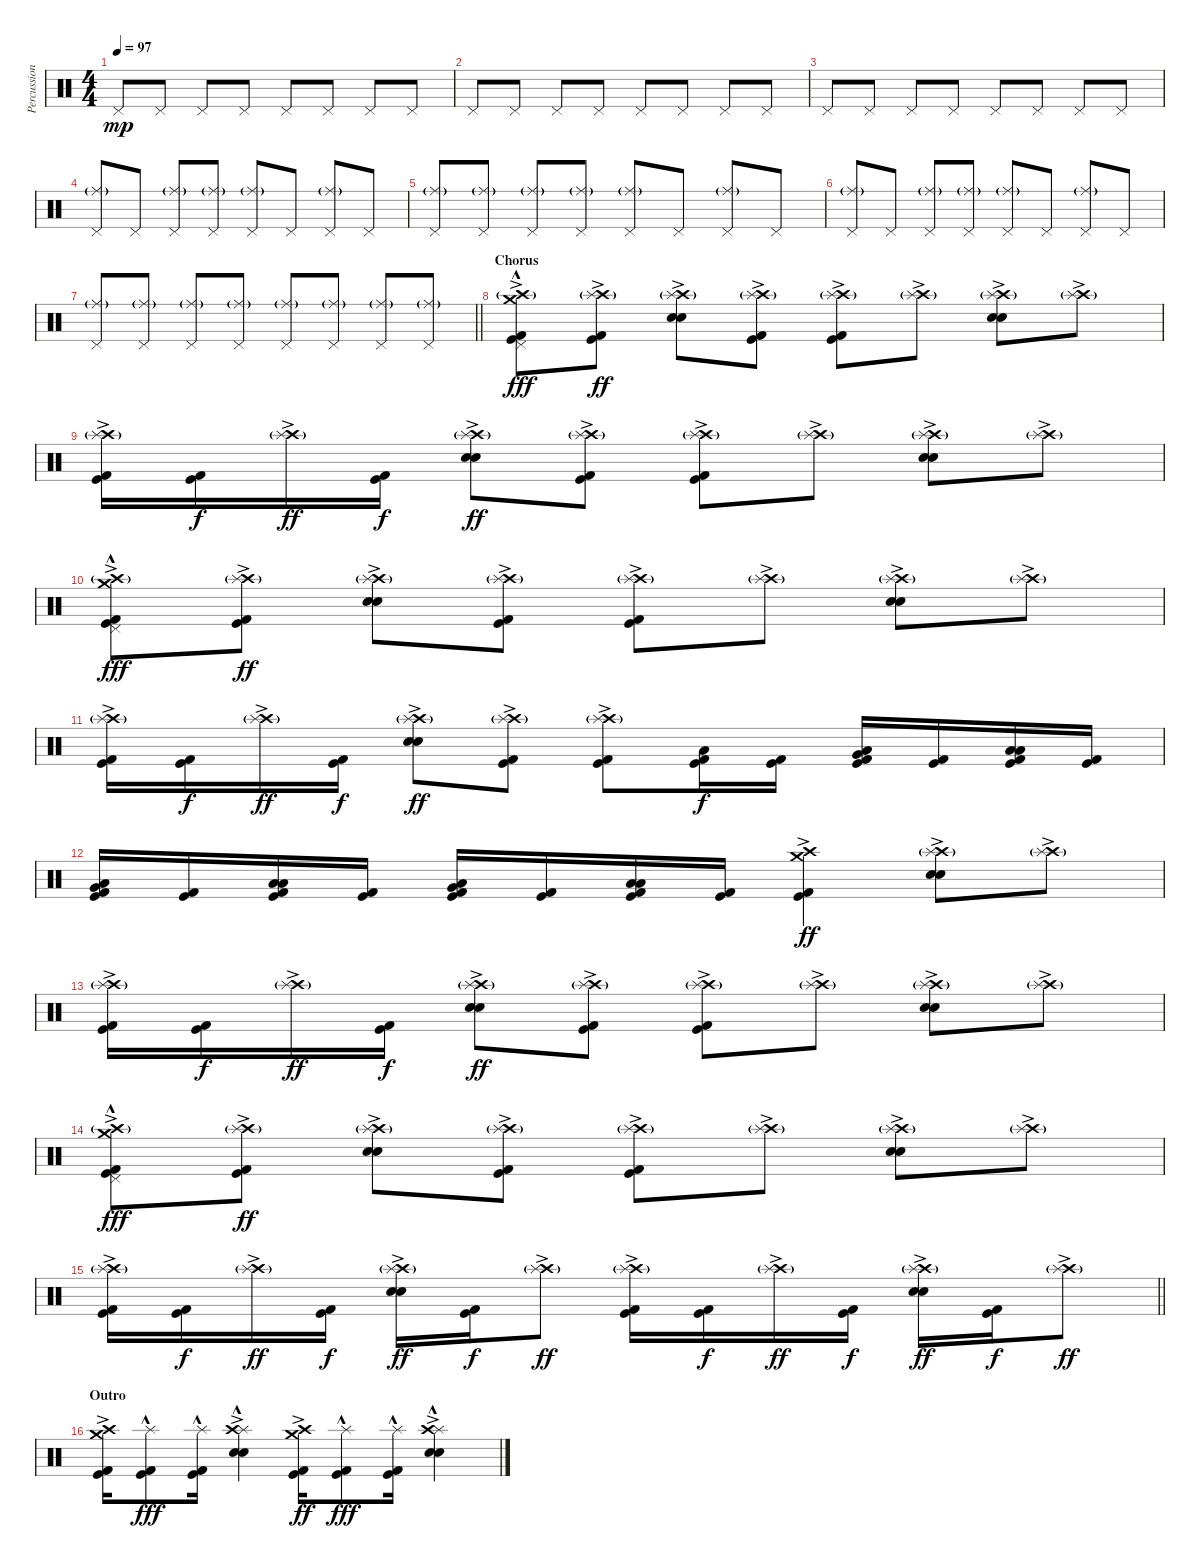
\track ("Percussion" "Percussion") {instrument percussion}
\staff {score}
\articulation defaults
\ts (4 4)
\tempo 97
\clef neutral
\ks c "Pedal Hi-Hat (hit)".8{dy mp} "Pedal Hi-Hat (hit)".8 "Pedal Hi-Hat (hit)".8 "Pedal Hi-Hat (hit)".8 "Pedal Hi-Hat (hit)".8 "Pedal Hi-Hat (hit)".8 "Pedal Hi-Hat (hit)".8 "Pedal Hi-Hat (hit)".8
|
"Pedal Hi-Hat (hit)".8 "Pedal Hi-Hat (hit)".8 "Pedal Hi-Hat (hit)".8 "Pedal Hi-Hat (hit)".8 "Pedal Hi-Hat (hit)".8 "Pedal Hi-Hat (hit)".8 "Pedal Hi-Hat (hit)".8 "Pedal Hi-Hat (hit)".8 |
"Pedal Hi-Hat (hit)".8 "Pedal Hi-Hat (hit)".8 "Pedal Hi-Hat (hit)".8 "Pedal Hi-Hat (hit)".8 "Pedal Hi-Hat (hit)".8 "Pedal Hi-Hat (hit)".8 "Pedal Hi-Hat (hit)".8 "Pedal Hi-Hat (hit)".8 |
("Ride (middle)"{g} "Pedal Hi-Hat (hit)").8 "Pedal Hi-Hat (hit)".8 ("Ride (middle)"{g} "Pedal Hi-Hat (hit)").8 ("Ride (middle)"{g} "Pedal Hi-Hat (hit)").8 ("Ride (middle)"{g} "Pedal Hi-Hat (hit)").8 "Pedal Hi-Hat (hit)".8 ("Ride (middle)"{g} "Pedal Hi-Hat (hit)").8 "Pedal Hi-Hat (hit)".8 |
("Ride (middle)"{g} "Pedal Hi-Hat (hit)").8 ("Ride (middle)"{g} "Pedal Hi-Hat (hit)").8 ("Ride (middle)"{g} "Pedal Hi-Hat (hit)").8 ("Ride (middle)"{g} "Pedal Hi-Hat (hit)").8 ("Ride (middle)"{g} "Pedal Hi-Hat (hit)").8 "Pedal Hi-Hat (hit)".8 ("Ride (middle)"{g} "Pedal Hi-Hat (hit)").8 "Pedal Hi-Hat (hit)".8 |
("Ride (middle)"{g} "Pedal Hi-Hat (hit)").8 "Pedal Hi-Hat (hit)".8 ("Ride (middle)"{g} "Pedal Hi-Hat (hit)").8 ("Ride (middle)"{g} "Pedal Hi-Hat (hit)").8 ("Ride (middle)"{g} "Pedal Hi-Hat (hit)").8 "Pedal Hi-Hat (hit)".8 ("Ride (middle)"{g} "Pedal Hi-Hat (hit)").8 "Pedal Hi-Hat (hit)".8 |
\barLineRight lightlight
("Ride (middle)"{g} "Pedal Hi-Hat (hit)").8 ("Ride (middle)"{g} "Pedal Hi-Hat (hit)").8 ("Ride (middle)"{g} "Pedal Hi-Hat (hit)").8 ("Ride (middle)"{g} "Pedal Hi-Hat (hit)").8 ("Ride (middle)"{g} "Pedal Hi-Hat (hit)").8 ("Ride (middle)"{g} "Pedal Hi-Hat (hit)").8 ("Ride (middle)"{g} "Pedal Hi-Hat (hit)").8 ("Ride (middle)"{g} "Pedal Hi-Hat (hit)").8 |
\section ("" "Chorus")
("Kick (hit) 2"{ac} "Kick (hit)" "Pedal Hi-Hat (hit)" "Crash high (hit)"{g} "Crash medium (hit)"{hac}).8{dy fff} ("Kick (hit) 2" "Kick (hit)" "Crash high (hit)"{g} "Splash (hit)"{ac}).8{dy ff} ("Electric Snare (hit)" "Snare (hit) 2" "Crash high (hit)"{g} "Splash (hit)"{ac}).8 ("Kick (hit) 2" "Kick (hit)" "Crash high (hit)"{g} "Splash (hit)"{ac}).8 ("Kick (hit) 2" "Kick (hit)" "Crash high (hit)"{g} "Splash (hit)"{ac}).8 ("Crash high (hit)"{g} "Splash (hit)"{ac}).8 ("Electric Snare (hit)" "Snare (hit) 2" "Crash high (hit)"{g} "Splash (hit)"{ac}).8 ("Crash high (hit)"{g} "Splash (hit)"{ac}).8 |
("Kick (hit) 2" "Kick (hit)" "Crash high (hit)"{g} "Splash (hit)"{ac}).16 ("Kick (hit) 2" "Kick (hit)").16{dy f} ("Crash high (hit)"{g} "Splash (hit)"{ac}).16{dy ff} ("Kick (hit) 2" "Kick (hit)").16{dy f} ("Electric Snare (hit)" "Snare (hit) 2" "Crash high (hit)"{g} "Splash (hit)"{ac}).8{dy ff} ("Kick (hit) 2" "Kick (hit)" "Crash high (hit)"{g} "Splash (hit)"{ac}).8 ("Kick (hit) 2" "Kick (hit)" "Crash high (hit)"{g} "Splash (hit)"{ac}).8 ("Crash high (hit)"{g} "Splash (hit)"{ac}).8 ("Electric Snare (hit)" "Snare (hit) 2" "Crash high (hit)"{g} "Splash (hit)"{ac}).8 ("Crash high (hit)"{g} "Splash (hit)"{ac}).8 |
("Kick (hit) 2"{ac} "Kick (hit)" "Pedal Hi-Hat (hit)" "Crash high (hit)"{g} "Crash medium (hit)"{hac}).8{dy fff} ("Kick (hit) 2" "Kick (hit)" "Crash high (hit)"{g} "Splash (hit)"{ac}).8{dy ff} ("Electric Snare (hit)" "Snare (hit) 2" "Crash high (hit)"{g} "Splash (hit)"{ac}).8 ("Kick (hit) 2" "Kick (hit)" "Crash high (hit)"{g} "Splash (hit)"{ac}).8 ("Kick (hit) 2" "Kick (hit)" "Crash high (hit)"{g} "Splash (hit)"{ac}).8 ("Crash high (hit)"{g} "Splash (hit)"{ac}).8 ("Electric Snare (hit)" "Snare (hit) 2" "Crash high (hit)"{g} "Splash (hit)"{ac}).8 ("Crash high (hit)"{g} "Splash (hit)"{ac}).8 |
("Kick (hit) 2" "Kick (hit)" "Crash high (hit)"{g} "Splash (hit)"{ac}).16 ("Kick (hit) 2" "Kick (hit)").16{dy f} ("Crash high (hit)"{g} "Splash (hit)"{ac}).16{dy ff} ("Kick (hit) 2" "Kick (hit)").16{dy f} ("Electric Snare (hit)" "Snare (hit) 2" "Crash high (hit)"{g} "Splash (hit)"{ac}).8{dy ff} ("Kick (hit) 2" "Kick (hit)" "Crash high (hit)"{g} "Splash (hit)"{ac}).8 ("Kick (hit) 2" "Kick (hit)" "Crash high (hit)"{g} "Splash (hit)"{ac}).8 ("Kick (hit) 2" "Kick (hit)" "Low Floor Tom (hit)").16{dy f} ("Kick (hit) 2" "Kick (hit)").16 ("Kick (hit) 2" "Kick (hit)" "Low Tom (hit)" "Very Low Tom (hit)").16 ("Kick (hit) 2" "Kick (hit)").16 ("Kick (hit) 2" "Kick (hit)" "Low Tom (hit)" "Low Floor Tom (hit)").16 ("Kick (hit) 2" "Kick (hit)").16 |
("Kick (hit) 2" "Kick (hit)" "Low Tom (hit)" "Very Low Tom (hit)").16 ("Kick (hit) 2" "Kick (hit)").16 ("Kick (hit) 2" "Kick (hit)" "Low Tom (hit)" "Low Floor Tom (hit)").16 ("Kick (hit) 2" "Kick (hit)").16 ("Kick (hit) 2" "Kick (hit)" "Low Tom (hit)" "Very Low Tom (hit)").16 ("Kick (hit) 2" "Kick (hit)").16 ("Kick (hit) 2" "Kick (hit)" "Low Tom (hit)" "Low Floor Tom (hit)").16 ("Kick (hit)" "Kick (hit) 2").16 ("Kick (hit) 2" "Kick (hit)" "Crash high (hit)" "Crash medium (hit)"{ac}).4{dy ff} ("Electric Snare (hit)" "Snare (hit) 2" "Crash high (hit)"{g} "Splash (hit)"{ac}).8 ("Crash high (hit)"{g} "Splash (hit)"{ac}).8 |
("Kick (hit) 2" "Kick (hit)" "Crash high (hit)"{g} "Splash (hit)"{ac}).16 ("Kick (hit) 2" "Kick (hit)").16{dy f} ("Crash high (hit)"{g} "Splash (hit)"{ac}).16{dy ff} ("Kick (hit) 2" "Kick (hit)").16{dy f} ("Electric Snare (hit)" "Snare (hit) 2" "Crash high (hit)"{g} "Splash (hit)"{ac}).8{dy ff} ("Kick (hit) 2" "Kick (hit)" "Crash high (hit)"{g} "Splash (hit)"{ac}).8 ("Kick (hit) 2" "Kick (hit)" "Crash high (hit)"{g} "Splash (hit)"{ac}).8 ("Crash high (hit)"{g} "Splash (hit)"{ac}).8 ("Electric Snare (hit)" "Snare (hit) 2" "Crash high (hit)"{g} "Splash (hit)"{ac}).8 ("Crash high (hit)"{g} "Splash (hit)"{ac}).8 |
("Kick (hit) 2"{ac} "Kick (hit)" "Pedal Hi-Hat (hit)" "Crash high (hit)"{g} "Crash medium (hit)"{hac}).8{dy fff} ("Kick (hit) 2" "Kick (hit)" "Crash high (hit)"{g} "Splash (hit)"{ac}).8{dy ff} ("Electric Snare (hit)" "Snare (hit) 2" "Crash high (hit)"{g} "Splash (hit)"{ac}).8 ("Kick (hit) 2" "Kick (hit)" "Crash high (hit)"{g} "Splash (hit)"{ac}).8 ("Kick (hit) 2" "Kick (hit)" "Crash high (hit)"{g} "Splash (hit)"{ac}).8 ("Crash high (hit)"{g} "Splash (hit)"{ac}).8 ("Electric Snare (hit)" "Snare (hit) 2" "Crash high (hit)"{g} "Splash (hit)"{ac}).8 ("Crash high (hit)"{g} "Splash (hit)"{ac}).8 |
\barLineRight lightlight
("Kick (hit) 2" "Kick (hit)" "Crash high (hit)"{g} "Splash (hit)"{ac}).16 ("Kick (hit) 2" "Kick (hit)").16{dy f} ("Crash high (hit)"{g} "Splash (hit)"{ac}).16{dy ff} ("Kick (hit) 2" "Kick (hit)").16{dy f} ("Electric Snare (hit)" "Snare (hit) 2" "Crash high (hit)"{g} "Splash (hit)"{ac}).16{dy ff} ("Kick (hit) 2" "Kick (hit)").16{dy f} ("Crash high (hit)"{g} "Splash (hit)"{ac}).8{dy ff} ("Kick (hit) 2" "Kick (hit)" "Crash high (hit)"{g} "Splash (hit)"{ac}).16 ("Kick (hit) 2" "Kick (hit)").16{dy f} ("Crash high (hit)"{g} "Splash (hit)"{ac}).16{dy ff} ("Kick (hit) 2" "Kick (hit)").16{dy f} ("Electric Snare (hit)" "Snare (hit) 2" "Crash high (hit)"{g} "Splash (hit)"{ac}).16{dy ff} ("Kick (hit) 2" "Kick (hit)").16{dy f} ("Crash high (hit)"{g} "Splash (hit)"{ac}).8{dy ff} |
\section ("" "Outro")
("Kick (hit) 2" "Kick (hit)" "Crash high (hit)"{ac} "Crash medium (hit)"{ac}).16 ("Kick (hit) 2" "Kick (hit)" "Splash (hit)"{hac}).8{dy fff} ("Kick (hit) 2" "Kick (hit)" "Splash (hit)"{hac}).16 ("Electric Snare (hit)" "Snare (hit) 2" "Splash (hit)"{ac} "Crash high (hit)"{hac}).4 ("Kick (hit) 2" "Kick (hit)" "Crash high (hit)"{ac} "Crash medium (hit)"{ac}).16{dy ff} ("Kick (hit) 2" "Kick (hit)" "Splash (hit)"{hac}).8{dy fff} ("Kick (hit) 2" "Kick (hit)" "Splash (hit)"{hac}).16 ("Electric Snare (hit)" "Snare (hit) 2" "Splash (hit)"{ac} "Crash high (hit)"{hac}).4
